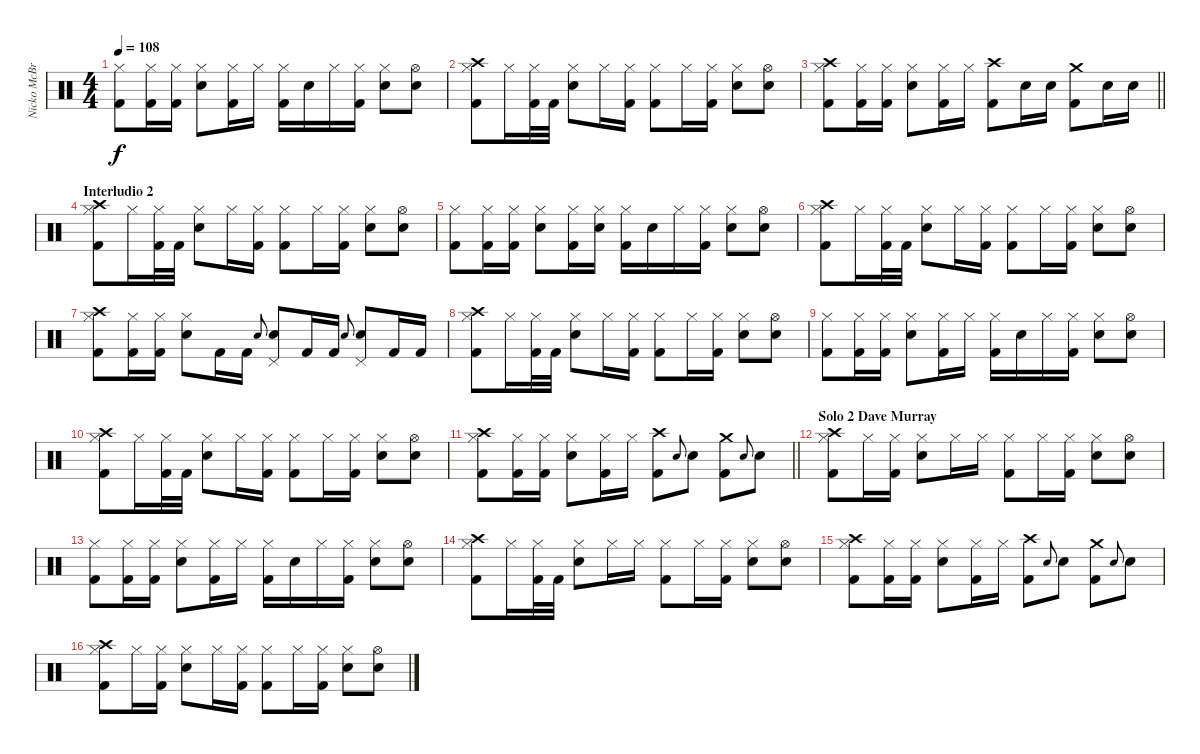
\track ("Nicko McBrain" "Nicko McBr") {instrument percussion}
\staff {score}
\articulation defaults
\ts (4 4)
\tempo 108
\clef neutral
\ks c
("Hi-Hat (closed)" "Kick (hit) 2").8{dy f} ("Hi-Hat (closed)" "Kick (hit) 2").16 ("Hi-Hat (closed)" "Kick (hit) 2").16 ("Hi-Hat (closed)" "Snare (hit) 2").8 ("Hi-Hat (closed)" "Kick (hit) 2").16 "Hi-Hat (closed)".16 ("Hi-Hat (closed)" "Kick (hit) 2").16 "Snare (hit) 2".16 "Hi-Hat (closed)".16 ("Hi-Hat (closed)" "Kick (hit) 2").16 ("Hi-Hat (closed)" "Snare (hit) 2").8 ("Hi-Hat (open)" "Snare (hit) 2").8 |
("Hi-Hat (closed)" "Crash high (hit)" "Kick (hit) 2").8 "Hi-Hat (closed)".16 ("Hi-Hat (closed)" "Kick (hit) 2").32 "Kick (hit) 2".32 ("Hi-Hat (closed)" "Snare (hit) 2").8 "Hi-Hat (closed)".16 ("Hi-Hat (closed)" "Kick (hit) 2").16 ("Hi-Hat (closed)" "Kick (hit) 2").8 "Hi-Hat (closed)".16 ("Hi-Hat (closed)" "Kick (hit) 2").16 ("Hi-Hat (closed)" "Snare (hit) 2").8 ("Hi-Hat (open)" "Snare (hit) 2").8 |
\barLineRight lightlight
("Hi-Hat (closed)" "Crash high (hit)" "Kick (hit) 2").8 ("Hi-Hat (closed)" "Kick (hit) 2").16 ("Hi-Hat (closed)" "Kick (hit) 2").16 ("Hi-Hat (closed)" "Snare (hit) 2").8 ("Hi-Hat (closed)" "Kick (hit) 2").16 "Hi-Hat (closed)".16 ("Crash high (hit)" "Kick (hit) 2").8 "Snare (hit) 2".16 "Snare (hit) 2".16 ("Crash medium (hit)" "Kick (hit) 2").8 "Snare (hit) 2".16 "Snare (hit) 2".16 |
\section ("" "Interludio 2")
("Hi-Hat (closed)" "Crash high (hit)" "Kick (hit) 2").8 "Hi-Hat (closed)".16 ("Hi-Hat (closed)" "Kick (hit) 2").32 "Kick (hit) 2".32 ("Hi-Hat (closed)" "Snare (hit) 2").8 "Hi-Hat (closed)".16 ("Hi-Hat (closed)" "Kick (hit) 2").16 ("Hi-Hat (closed)" "Kick (hit) 2").8 "Hi-Hat (closed)".16 ("Hi-Hat (closed)" "Kick (hit) 2").16 ("Hi-Hat (closed)" "Snare (hit) 2").8 ("Hi-Hat (open)" "Snare (hit) 2").8 |
("Hi-Hat (closed)" "Kick (hit) 2").8 ("Hi-Hat (closed)" "Kick (hit) 2").16 ("Hi-Hat (closed)" "Kick (hit) 2").16 ("Hi-Hat (closed)" "Snare (hit) 2").8 ("Hi-Hat (closed)" "Kick (hit) 2").16 ("Hi-Hat (closed)" "Snare (hit) 2").16 ("Hi-Hat (closed)" "Kick (hit) 2").16 "Snare (hit) 2".16 "Hi-Hat (closed)".16 ("Hi-Hat (closed)" "Kick (hit) 2").16 ("Hi-Hat (closed)" "Snare (hit) 2").8 ("Hi-Hat (open)" "Snare (hit) 2").8 |
("Hi-Hat (closed)" "Crash high (hit)" "Kick (hit) 2").8 "Hi-Hat (closed)".16 ("Hi-Hat (closed)" "Kick (hit) 2").32 "Kick (hit) 2".32 ("Hi-Hat (closed)" "Snare (hit) 2").8 "Hi-Hat (closed)".16 ("Hi-Hat (closed)" "Kick (hit) 2").16 ("Hi-Hat (closed)" "Kick (hit) 2").8 "Hi-Hat (closed)".16 ("Hi-Hat (closed)" "Kick (hit) 2").16 ("Hi-Hat (closed)" "Snare (hit) 2").8 ("Hi-Hat (open)" "Snare (hit) 2").8 |
("Hi-Hat (closed)" "Crash high (hit)" "Kick (hit) 2").8 ("Hi-Hat (closed)" "Kick (hit) 2").16 ("Hi-Hat (closed)" "Kick (hit) 2").16 ("Hi-Hat (closed)" "Snare (hit) 2").8 "Kick (hit) 2".16 "Kick (hit) 2".16 "Snare (hit) 2".8{gr onbeat} ("Pedal Hi-Hat (hit)" "Snare (hit) 2").8 "Kick (hit) 2".16 "Kick (hit) 2".16 "Snare (hit) 2".8{gr onbeat} ("Pedal Hi-Hat (hit)" "Snare (hit) 2").8 "Kick (hit) 2".16 "Kick (hit) 2".16 |
("Hi-Hat (closed)" "Crash high (hit)" "Kick (hit) 2").8 "Hi-Hat (closed)".16 ("Hi-Hat (closed)" "Kick (hit) 2").32 "Kick (hit) 2".32 ("Hi-Hat (closed)" "Snare (hit) 2").8 "Hi-Hat (closed)".16 ("Hi-Hat (closed)" "Kick (hit) 2").16 ("Hi-Hat (closed)" "Kick (hit) 2").8 "Hi-Hat (closed)".16 ("Hi-Hat (closed)" "Kick (hit) 2").16 ("Hi-Hat (closed)" "Snare (hit) 2").8 ("Hi-Hat (open)" "Snare (hit) 2").8 |
("Hi-Hat (closed)" "Kick (hit) 2").8 ("Hi-Hat (closed)" "Kick (hit) 2").16 ("Hi-Hat (closed)" "Kick (hit) 2").16 ("Hi-Hat (closed)" "Snare (hit) 2").8 ("Hi-Hat (closed)" "Kick (hit) 2").16 "Hi-Hat (closed)".16 ("Hi-Hat (closed)" "Kick (hit) 2").16 "Snare (hit) 2".16 "Hi-Hat (closed)".16 ("Hi-Hat (closed)" "Kick (hit) 2").16 ("Hi-Hat (closed)" "Snare (hit) 2").8 ("Hi-Hat (open)" "Snare (hit) 2").8 |
("Hi-Hat (closed)" "Crash high (hit)" "Kick (hit) 2").8 "Hi-Hat (closed)".16 ("Hi-Hat (closed)" "Kick (hit) 2").32 "Kick (hit) 2".32 ("Hi-Hat (closed)" "Snare (hit) 2").8 "Hi-Hat (closed)".16 ("Hi-Hat (closed)" "Kick (hit) 2").16 ("Hi-Hat (closed)" "Kick (hit) 2").8 "Hi-Hat (closed)".16 ("Hi-Hat (closed)" "Kick (hit) 2").16 ("Hi-Hat (closed)" "Snare (hit) 2").8 ("Hi-Hat (open)" "Snare (hit) 2").8 |
\barLineRight lightlight
("Hi-Hat (closed)" "Crash high (hit)" "Kick (hit) 2").8 ("Hi-Hat (closed)" "Kick (hit) 2").16 ("Hi-Hat (closed)" "Kick (hit) 2").16 ("Hi-Hat (closed)" "Snare (hit) 2").8 ("Hi-Hat (closed)" "Kick (hit) 2").16 "Hi-Hat (closed)".16 ("Crash high (hit)" "Kick (hit) 2").8 "Snare (hit) 2".8{gr onbeat} "Snare (hit) 2".8 ("Crash medium (hit)" "Kick (hit) 2").8 "Snare (hit) 2".8{gr onbeat} "Snare (hit) 2".8 |
\section ("" "Solo 2 Dave Murray")
("Hi-Hat (closed)" "Crash high (hit)" "Kick (hit) 2").8 "Hi-Hat (closed)".16 ("Hi-Hat (closed)" "Kick (hit) 2").16 ("Hi-Hat (closed)" "Snare (hit) 2").8 "Hi-Hat (closed)".16 "Hi-Hat (closed)".16 ("Hi-Hat (closed)" "Kick (hit) 2").8 "Hi-Hat (closed)".16 ("Hi-Hat (closed)" "Kick (hit) 2").16 ("Hi-Hat (closed)" "Snare (hit) 2").8 ("Hi-Hat (open)" "Snare (hit) 2").8 |
("Hi-Hat (closed)" "Kick (hit) 2").8 ("Hi-Hat (closed)" "Kick (hit) 2").16 ("Hi-Hat (closed)" "Kick (hit) 2").16 ("Hi-Hat (closed)" "Snare (hit) 2").8 ("Hi-Hat (closed)" "Kick (hit) 2").16 "Hi-Hat (closed)".16 ("Hi-Hat (closed)" "Kick (hit) 2").16 "Snare (hit) 2".16 "Hi-Hat (closed)".16 ("Hi-Hat (closed)" "Kick (hit) 2").16 ("Hi-Hat (closed)" "Snare (hit) 2").8 ("Hi-Hat (open)" "Snare (hit) 2").8 |
("Hi-Hat (closed)" "Crash high (hit)" "Kick (hit) 2").8 "Hi-Hat (closed)".16 ("Hi-Hat (closed)" "Kick (hit) 2").32 "Kick (hit) 2".32 ("Hi-Hat (closed)" "Snare (hit) 2").8 "Hi-Hat (closed)".16 "Hi-Hat (closed)".16 ("Hi-Hat (closed)" "Kick (hit) 2").8 "Hi-Hat (closed)".16 ("Hi-Hat (closed)" "Kick (hit) 2").16 ("Hi-Hat (closed)" "Snare (hit) 2").8 ("Hi-Hat (open)" "Snare (hit) 2").8 |
("Hi-Hat (closed)" "Crash high (hit)" "Kick (hit) 2").8 ("Hi-Hat (closed)" "Kick (hit) 2").16 ("Hi-Hat (closed)" "Kick (hit) 2").16 ("Hi-Hat (closed)" "Snare (hit) 2").8 ("Hi-Hat (closed)" "Kick (hit) 2").16 "Hi-Hat (closed)".16 ("Crash high (hit)" "Kick (hit) 2").8 "Snare (hit) 2".8{gr onbeat} "Snare (hit) 2".8 ("Crash medium (hit)" "Kick (hit) 2").8 "Snare (hit) 2".8{gr onbeat} "Snare (hit) 2".8 |
("Hi-Hat (closed)" "Crash high (hit)" "Kick (hit) 2").8 "Hi-Hat (closed)".16 ("Hi-Hat (closed)" "Kick (hit) 2").16 ("Hi-Hat (closed)" "Snare (hit) 2").8 "Hi-Hat (closed)".16 ("Hi-Hat (closed)" "Kick (hit) 2").16 ("Hi-Hat (closed)" "Kick (hit) 2").8 "Hi-Hat (closed)".16 ("Hi-Hat (closed)" "Kick (hit) 2").16 ("Hi-Hat (closed)" "Snare (hit) 2").8 ("Hi-Hat (open)" "Snare (hit) 2").8
